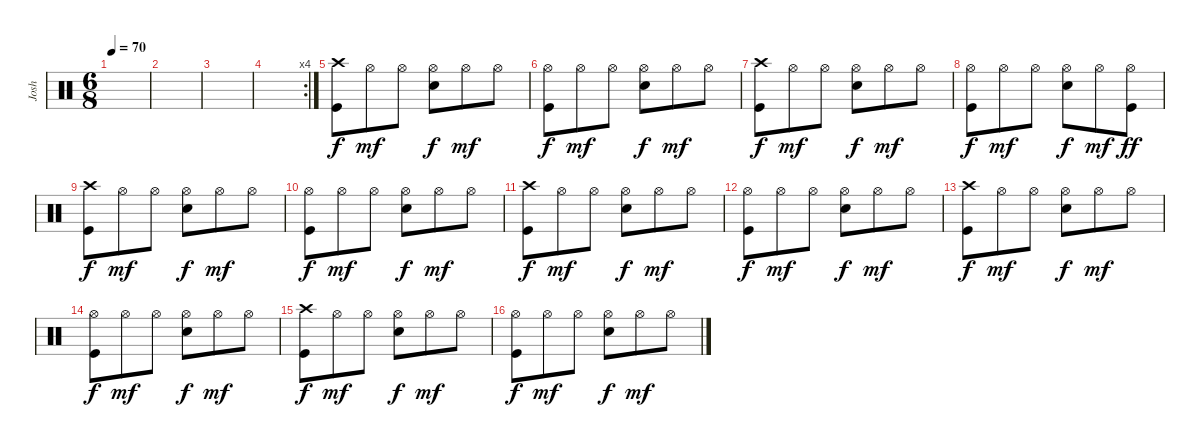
\track ("Josh" "Josh") {instrument percussion}
\staff {score}
\articulation defaults
\ts (6 8)
\tempo 70
\clef neutral
\ks c
|
|
|
\rc 4
|
("Crash high (hit)" "Kick (hit)").8 "Hi-Hat (open)".8{dy mf} "Hi-Hat (open)".8 ("Hi-Hat (open)" "Snare (hit) 2").8{dy f} "Hi-Hat (open)".8{dy mf} "Hi-Hat (open)".8 |
("Hi-Hat (open)" "Kick (hit)").8{dy f} "Hi-Hat (open)".8{dy mf} "Hi-Hat (open)".8 ("Hi-Hat (open)" "Snare (hit) 2").8{dy f} "Hi-Hat (open)".8{dy mf} "Hi-Hat (open)".8 |
("Crash high (hit)" "Kick (hit)").8{dy f} "Hi-Hat (open)".8{dy mf} "Hi-Hat (open)".8 ("Hi-Hat (open)" "Snare (hit) 2").8{dy f} "Hi-Hat (open)".8{dy mf} "Hi-Hat (open)".8 |
("Hi-Hat (open)" "Kick (hit)").8{dy f} "Hi-Hat (open)".8{dy mf} "Hi-Hat (open)".8 ("Hi-Hat (open)" "Snare (hit) 2").8{dy f} "Hi-Hat (open)".8{dy mf} ("Hi-Hat (open)" "Kick (hit)").8{dy ff} |
("Crash high (hit)" "Kick (hit)").8{dy f} "Hi-Hat (open)".8{dy mf} "Hi-Hat (open)".8 ("Hi-Hat (open)" "Snare (hit) 2").8{dy f} "Hi-Hat (open)".8{dy mf} "Hi-Hat (open)".8 |
("Hi-Hat (open)" "Kick (hit)").8{dy f} "Hi-Hat (open)".8{dy mf} "Hi-Hat (open)".8 ("Hi-Hat (open)" "Snare (hit) 2").8{dy f} "Hi-Hat (open)".8{dy mf} "Hi-Hat (open)".8 |
("Crash high (hit)" "Kick (hit)").8{dy f} "Hi-Hat (open)".8{dy mf} "Hi-Hat (open)".8 ("Hi-Hat (open)" "Snare (hit) 2").8{dy f} "Hi-Hat (open)".8{dy mf} "Hi-Hat (open)".8 |
("Hi-Hat (open)" "Kick (hit)").8{dy f} "Hi-Hat (open)".8{dy mf} "Hi-Hat (open)".8 ("Hi-Hat (open)" "Snare (hit) 2").8{dy f} "Hi-Hat (open)".8{dy mf} "Hi-Hat (open)".8 |
("Crash high (hit)" "Kick (hit)").8{dy f} "Hi-Hat (open)".8{dy mf} "Hi-Hat (open)".8 ("Hi-Hat (open)" "Snare (hit) 2").8{dy f} "Hi-Hat (open)".8{dy mf} "Hi-Hat (open)".8 |
("Hi-Hat (open)" "Kick (hit)").8{dy f} "Hi-Hat (open)".8{dy mf} "Hi-Hat (open)".8 ("Hi-Hat (open)" "Snare (hit) 2").8{dy f} "Hi-Hat (open)".8{dy mf} "Hi-Hat (open)".8 |
("Crash high (hit)" "Kick (hit)").8{dy f} "Hi-Hat (open)".8{dy mf} "Hi-Hat (open)".8 ("Hi-Hat (open)" "Snare (hit) 2").8{dy f} "Hi-Hat (open)".8{dy mf} "Hi-Hat (open)".8 |
("Hi-Hat (open)" "Kick (hit)").8{dy f} "Hi-Hat (open)".8{dy mf} "Hi-Hat (open)".8 ("Hi-Hat (open)" "Snare (hit) 2").8{dy f} "Hi-Hat (open)".8{dy mf} "Hi-Hat (open)".8
